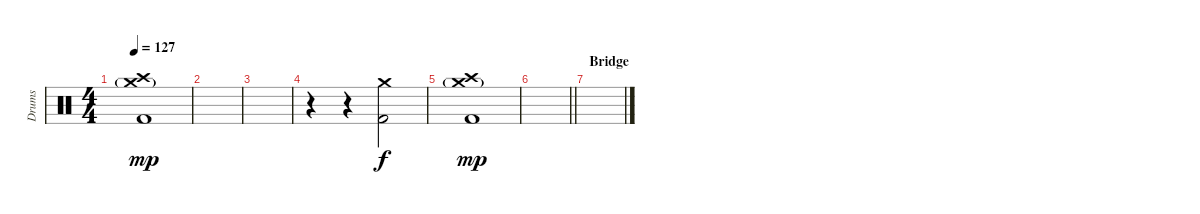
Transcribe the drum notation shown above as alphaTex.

\track ("Drums" "Drums") {instrument percussion}
\staff {score}
\articulation defaults
\ts (4 4)
\tempo 127
\clef neutral
\ks c
("Crash high (hit)" "Crash medium (hit)"{g} "Kick (hit) 2").1{dy mp} |
|
|
r.4 r.4 ("Crash medium (hit)" "Kick (hit) 2").2{dy f} |
("Crash high (hit)" "Crash medium (hit)"{g} "Kick (hit) 2").1{dy mp} |
\barLineRight lightlight
|
\section ("" "Bridge")
